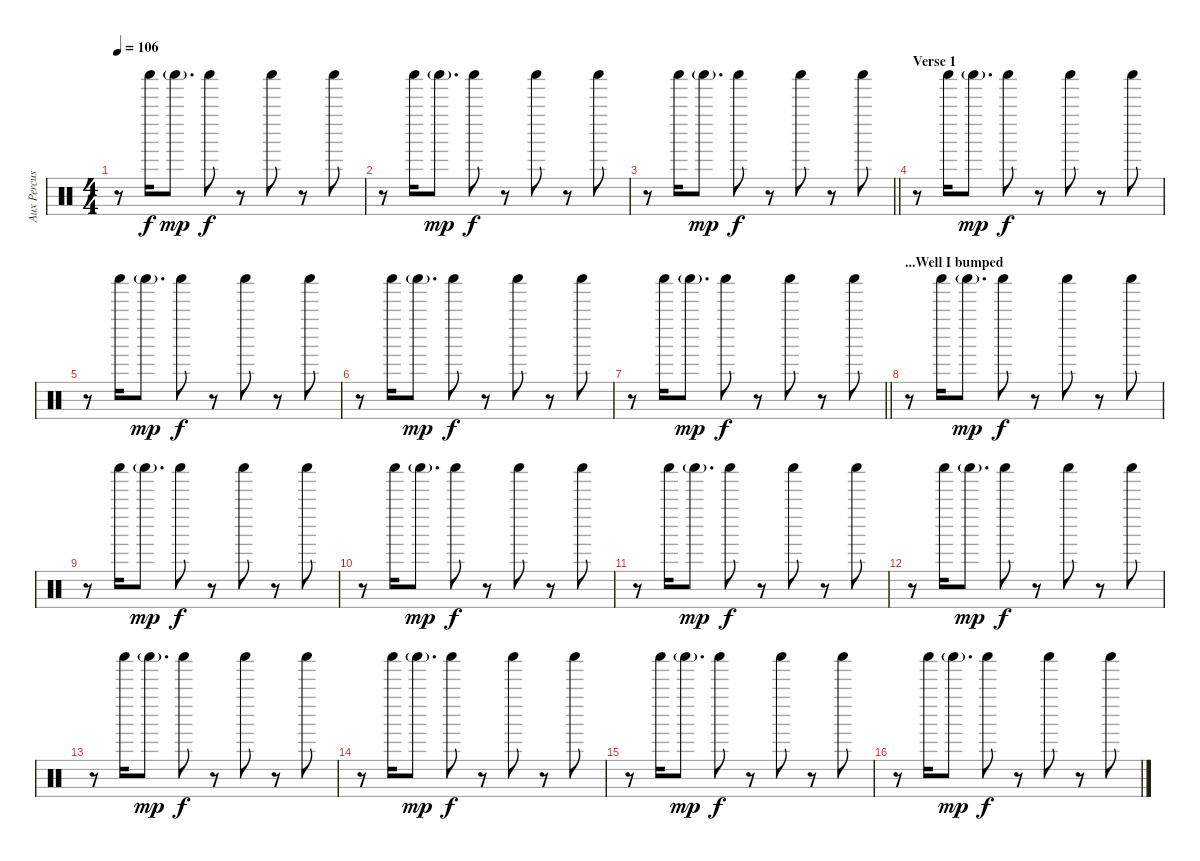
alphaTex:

\track ("Aux Percussion" "Aux Percus") {instrument percussion}
\staff {score}
\articulation defaults
\ts (4 4)
\tempo 106
\clef neutral
\ks c
r.8{dy f} "Shaker (hit)".16 "Shaker (hit)"{g}.8{d dy mp} "Shaker (hit)".8{dy f} r.8 "Shaker (hit)".8 r.8 "Shaker (hit)".8 |
r.8 "Shaker (hit)".16 "Shaker (hit)"{g}.8{d dy mp} "Shaker (hit)".8{dy f} r.8 "Shaker (hit)".8 r.8 "Shaker (hit)".8 |
\barLineRight lightlight
r.8 "Shaker (hit)".16 "Shaker (hit)"{g}.8{d dy mp} "Shaker (hit)".8{dy f} r.8 "Shaker (hit)".8 r.8 "Shaker (hit)".8 |
\section ("" "Verse 1")
r.8 "Shaker (hit)".16 "Shaker (hit)"{g}.8{d dy mp} "Shaker (hit)".8{dy f} r.8 "Shaker (hit)".8 r.8 "Shaker (hit)".8 |
r.8 "Shaker (hit)".16 "Shaker (hit)"{g}.8{d dy mp} "Shaker (hit)".8{dy f} r.8 "Shaker (hit)".8 r.8 "Shaker (hit)".8 |
r.8 "Shaker (hit)".16 "Shaker (hit)"{g}.8{d dy mp} "Shaker (hit)".8{dy f} r.8 "Shaker (hit)".8 r.8 "Shaker (hit)".8 |
\barLineRight lightlight
r.8 "Shaker (hit)".16 "Shaker (hit)"{g}.8{d dy mp} "Shaker (hit)".8{dy f} r.8 "Shaker (hit)".8 r.8 "Shaker (hit)".8 |
\section ("" "...Well I bumped")
r.8 "Shaker (hit)".16 "Shaker (hit)"{g}.8{d dy mp} "Shaker (hit)".8{dy f} r.8 "Shaker (hit)".8 r.8 "Shaker (hit)".8 |
r.8 "Shaker (hit)".16 "Shaker (hit)"{g}.8{d dy mp} "Shaker (hit)".8{dy f} r.8 "Shaker (hit)".8 r.8 "Shaker (hit)".8 |
r.8 "Shaker (hit)".16 "Shaker (hit)"{g}.8{d dy mp} "Shaker (hit)".8{dy f} r.8 "Shaker (hit)".8 r.8 "Shaker (hit)".8 |
r.8 "Shaker (hit)".16 "Shaker (hit)"{g}.8{d dy mp} "Shaker (hit)".8{dy f} r.8 "Shaker (hit)".8 r.8 "Shaker (hit)".8 |
r.8 "Shaker (hit)".16 "Shaker (hit)"{g}.8{d dy mp} "Shaker (hit)".8{dy f} r.8 "Shaker (hit)".8 r.8 "Shaker (hit)".8 |
r.8 "Shaker (hit)".16 "Shaker (hit)"{g}.8{d dy mp} "Shaker (hit)".8{dy f} r.8 "Shaker (hit)".8 r.8 "Shaker (hit)".8 |
r.8 "Shaker (hit)".16 "Shaker (hit)"{g}.8{d dy mp} "Shaker (hit)".8{dy f} r.8 "Shaker (hit)".8 r.8 "Shaker (hit)".8 |
r.8 "Shaker (hit)".16 "Shaker (hit)"{g}.8{d dy mp} "Shaker (hit)".8{dy f} r.8 "Shaker (hit)".8 r.8 "Shaker (hit)".8 |
r.8 "Shaker (hit)".16 "Shaker (hit)"{g}.8{d dy mp} "Shaker (hit)".8{dy f} r.8 "Shaker (hit)".8 r.8 "Shaker (hit)".8
